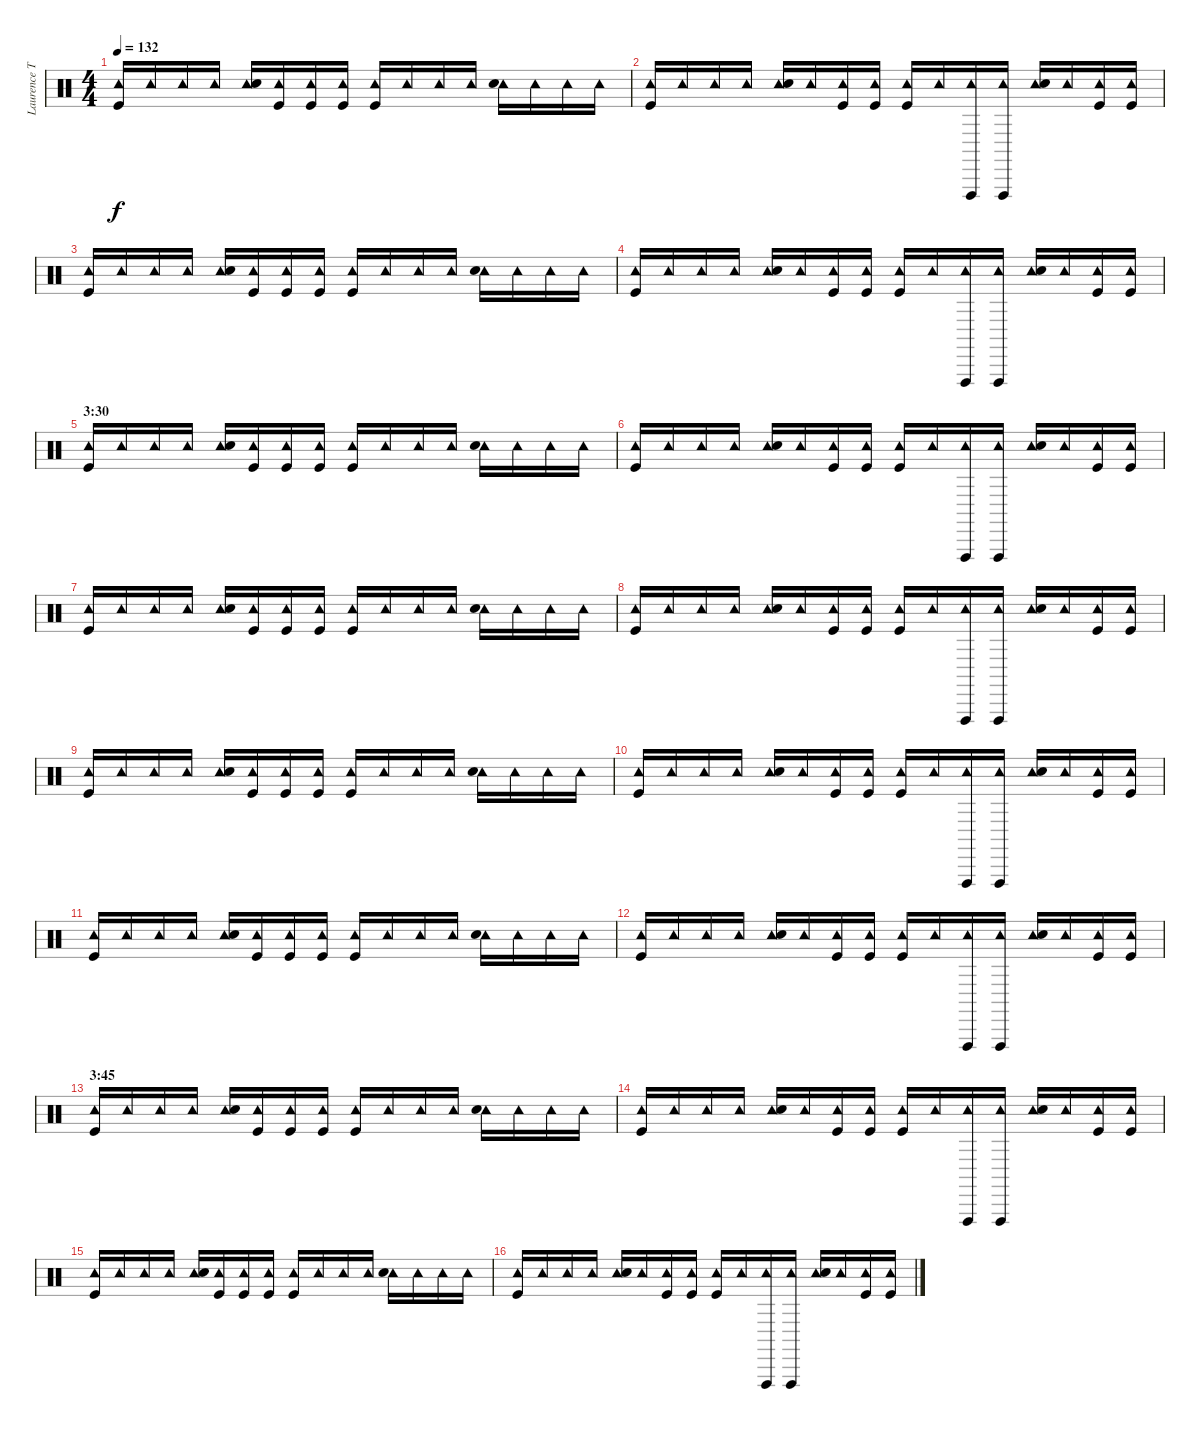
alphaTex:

\track ("Laurence Tolhurst (drums)" "Laurence T") {instrument percussion}
\staff {score}
\articulation defaults
\ts (4 4)
\tempo 132
\clef neutral
\ks c
("Tambourine (hit)" "Kick (hit)").16{dy f} "Tambourine (hit)".16 "Tambourine (hit)".16 "Tambourine (hit)".16 ("Tambourine (hit)" "Snare (hit) 2").16 ("Tambourine (hit)" "Kick (hit)").16 ("Tambourine (hit)" "Kick (hit)").16 ("Tambourine (hit)" "Kick (hit)").16 ("Tambourine (hit)" "Kick (hit)").16 "Tambourine (hit)".16 "Tambourine (hit)".16 "Tambourine (hit)".16 ("Tambourine (hit)" "Snare (hit) 2").16 "Tambourine (hit)".16 "Tambourine (hit)".16 "Tambourine (hit)".16 |
("Tambourine (hit)" "Kick (hit)").16 "Tambourine (hit)".16 "Tambourine (hit)".16 "Tambourine (hit)".16 ("Tambourine (hit)" "Snare (hit) 2").16 "Tambourine (hit)".16 ("Tambourine (hit)" "Kick (hit)").16 ("Tambourine (hit)" "Kick (hit)").16 ("Tambourine (hit)" "Kick (hit)").16 "Tambourine (hit)".16 ("Tambourine (hit)" "Vibraslap (hit)").16 ("Tambourine (hit)" "Vibraslap (hit)").16 ("Tambourine (hit)" "Snare (hit) 2").16 "Tambourine (hit)".16 ("Tambourine (hit)" "Kick (hit)").16 ("Tambourine (hit)" "Kick (hit)").16 |
("Tambourine (hit)" "Kick (hit)").16 "Tambourine (hit)".16 "Tambourine (hit)".16 "Tambourine (hit)".16 ("Tambourine (hit)" "Snare (hit) 2").16 ("Tambourine (hit)" "Kick (hit)").16 ("Tambourine (hit)" "Kick (hit)").16 ("Tambourine (hit)" "Kick (hit)").16 ("Tambourine (hit)" "Kick (hit)").16 "Tambourine (hit)".16 "Tambourine (hit)".16 "Tambourine (hit)".16 ("Tambourine (hit)" "Snare (hit) 2").16 "Tambourine (hit)".16 "Tambourine (hit)".16 "Tambourine (hit)".16 |
("Tambourine (hit)" "Kick (hit)").16 "Tambourine (hit)".16 "Tambourine (hit)".16 "Tambourine (hit)".16 ("Tambourine (hit)" "Snare (hit) 2").16 "Tambourine (hit)".16 ("Tambourine (hit)" "Kick (hit)").16 ("Tambourine (hit)" "Kick (hit)").16 ("Tambourine (hit)" "Kick (hit)").16 "Tambourine (hit)".16 ("Tambourine (hit)" "Vibraslap (hit)").16 ("Tambourine (hit)" "Vibraslap (hit)").16 ("Tambourine (hit)" "Snare (hit) 2").16 "Tambourine (hit)".16 ("Tambourine (hit)" "Kick (hit)").16 ("Tambourine (hit)" "Kick (hit)").16 |
\section ("" "3:30")
("Tambourine (hit)" "Kick (hit)").16 "Tambourine (hit)".16 "Tambourine (hit)".16 "Tambourine (hit)".16 ("Tambourine (hit)" "Snare (hit) 2").16 ("Tambourine (hit)" "Kick (hit)").16 ("Tambourine (hit)" "Kick (hit)").16 ("Tambourine (hit)" "Kick (hit)").16 ("Tambourine (hit)" "Kick (hit)").16 "Tambourine (hit)".16 "Tambourine (hit)".16 "Tambourine (hit)".16 ("Tambourine (hit)" "Snare (hit) 2").16 "Tambourine (hit)".16 "Tambourine (hit)".16 "Tambourine (hit)".16 |
("Tambourine (hit)" "Kick (hit)").16 "Tambourine (hit)".16 "Tambourine (hit)".16 "Tambourine (hit)".16 ("Tambourine (hit)" "Snare (hit) 2").16 "Tambourine (hit)".16 ("Tambourine (hit)" "Kick (hit)").16 ("Tambourine (hit)" "Kick (hit)").16 ("Tambourine (hit)" "Kick (hit)").16 "Tambourine (hit)".16 ("Tambourine (hit)" "Vibraslap (hit)").16 ("Tambourine (hit)" "Vibraslap (hit)").16 ("Tambourine (hit)" "Snare (hit) 2").16 "Tambourine (hit)".16 ("Tambourine (hit)" "Kick (hit)").16 ("Tambourine (hit)" "Kick (hit)").16 |
("Tambourine (hit)" "Kick (hit)").16 "Tambourine (hit)".16 "Tambourine (hit)".16 "Tambourine (hit)".16 ("Tambourine (hit)" "Snare (hit) 2").16 ("Tambourine (hit)" "Kick (hit)").16 ("Tambourine (hit)" "Kick (hit)").16 ("Tambourine (hit)" "Kick (hit)").16 ("Tambourine (hit)" "Kick (hit)").16 "Tambourine (hit)".16 "Tambourine (hit)".16 "Tambourine (hit)".16 ("Tambourine (hit)" "Snare (hit) 2").16 "Tambourine (hit)".16 "Tambourine (hit)".16 "Tambourine (hit)".16 |
("Tambourine (hit)" "Kick (hit)").16 "Tambourine (hit)".16 "Tambourine (hit)".16 "Tambourine (hit)".16 ("Tambourine (hit)" "Snare (hit) 2").16 "Tambourine (hit)".16 ("Tambourine (hit)" "Kick (hit)").16 ("Tambourine (hit)" "Kick (hit)").16 ("Tambourine (hit)" "Kick (hit)").16 "Tambourine (hit)".16 ("Tambourine (hit)" "Vibraslap (hit)").16 ("Tambourine (hit)" "Vibraslap (hit)").16 ("Tambourine (hit)" "Snare (hit) 2").16 "Tambourine (hit)".16 ("Tambourine (hit)" "Kick (hit)").16 ("Tambourine (hit)" "Kick (hit)").16 |
("Tambourine (hit)" "Kick (hit)").16 "Tambourine (hit)".16 "Tambourine (hit)".16 "Tambourine (hit)".16 ("Tambourine (hit)" "Snare (hit) 2").16 ("Tambourine (hit)" "Kick (hit)").16 ("Tambourine (hit)" "Kick (hit)").16 ("Tambourine (hit)" "Kick (hit)").16 ("Tambourine (hit)" "Kick (hit)").16 "Tambourine (hit)".16 "Tambourine (hit)".16 "Tambourine (hit)".16 ("Tambourine (hit)" "Snare (hit) 2").16 "Tambourine (hit)".16 "Tambourine (hit)".16 "Tambourine (hit)".16 |
("Tambourine (hit)" "Kick (hit)").16 "Tambourine (hit)".16 "Tambourine (hit)".16 "Tambourine (hit)".16 ("Tambourine (hit)" "Snare (hit) 2").16 "Tambourine (hit)".16 ("Tambourine (hit)" "Kick (hit)").16 ("Tambourine (hit)" "Kick (hit)").16 ("Tambourine (hit)" "Kick (hit)").16 "Tambourine (hit)".16 ("Tambourine (hit)" "Vibraslap (hit)").16 ("Tambourine (hit)" "Vibraslap (hit)").16 ("Tambourine (hit)" "Snare (hit) 2").16 "Tambourine (hit)".16 ("Tambourine (hit)" "Kick (hit)").16 ("Tambourine (hit)" "Kick (hit)").16 |
("Tambourine (hit)" "Kick (hit)").16 "Tambourine (hit)".16 "Tambourine (hit)".16 "Tambourine (hit)".16 ("Tambourine (hit)" "Snare (hit) 2").16 ("Tambourine (hit)" "Kick (hit)").16 ("Tambourine (hit)" "Kick (hit)").16 ("Tambourine (hit)" "Kick (hit)").16 ("Tambourine (hit)" "Kick (hit)").16 "Tambourine (hit)".16 "Tambourine (hit)".16 "Tambourine (hit)".16 ("Tambourine (hit)" "Snare (hit) 2").16 "Tambourine (hit)".16 "Tambourine (hit)".16 "Tambourine (hit)".16 |
("Tambourine (hit)" "Kick (hit)").16 "Tambourine (hit)".16 "Tambourine (hit)".16 "Tambourine (hit)".16 ("Tambourine (hit)" "Snare (hit) 2").16 "Tambourine (hit)".16 ("Tambourine (hit)" "Kick (hit)").16 ("Tambourine (hit)" "Kick (hit)").16 ("Tambourine (hit)" "Kick (hit)").16 "Tambourine (hit)".16 ("Tambourine (hit)" "Vibraslap (hit)").16 ("Tambourine (hit)" "Vibraslap (hit)").16 ("Tambourine (hit)" "Snare (hit) 2").16 "Tambourine (hit)".16 ("Tambourine (hit)" "Kick (hit)").16 ("Tambourine (hit)" "Kick (hit)").16 |
\section ("" "3:45")
("Tambourine (hit)" "Kick (hit)").16 "Tambourine (hit)".16 "Tambourine (hit)".16 "Tambourine (hit)".16 ("Tambourine (hit)" "Snare (hit) 2").16 ("Tambourine (hit)" "Kick (hit)").16 ("Tambourine (hit)" "Kick (hit)").16 ("Tambourine (hit)" "Kick (hit)").16 ("Tambourine (hit)" "Kick (hit)").16 "Tambourine (hit)".16 "Tambourine (hit)".16 "Tambourine (hit)".16 ("Tambourine (hit)" "Snare (hit) 2").16 "Tambourine (hit)".16 "Tambourine (hit)".16 "Tambourine (hit)".16 |
("Tambourine (hit)" "Kick (hit)").16 "Tambourine (hit)".16 "Tambourine (hit)".16 "Tambourine (hit)".16 ("Tambourine (hit)" "Snare (hit) 2").16 "Tambourine (hit)".16 ("Tambourine (hit)" "Kick (hit)").16 ("Tambourine (hit)" "Kick (hit)").16 ("Tambourine (hit)" "Kick (hit)").16 "Tambourine (hit)".16 ("Tambourine (hit)" "Vibraslap (hit)").16 ("Tambourine (hit)" "Vibraslap (hit)").16 ("Tambourine (hit)" "Snare (hit) 2").16 "Tambourine (hit)".16 ("Tambourine (hit)" "Kick (hit)").16 ("Tambourine (hit)" "Kick (hit)").16 |
("Tambourine (hit)" "Kick (hit)").16 "Tambourine (hit)".16 "Tambourine (hit)".16 "Tambourine (hit)".16 ("Tambourine (hit)" "Snare (hit) 2").16 ("Tambourine (hit)" "Kick (hit)").16 ("Tambourine (hit)" "Kick (hit)").16 ("Tambourine (hit)" "Kick (hit)").16 ("Tambourine (hit)" "Kick (hit)").16 "Tambourine (hit)".16 "Tambourine (hit)".16 "Tambourine (hit)".16 ("Tambourine (hit)" "Snare (hit) 2").16 "Tambourine (hit)".16 "Tambourine (hit)".16 "Tambourine (hit)".16 |
("Tambourine (hit)" "Kick (hit)").16 "Tambourine (hit)".16 "Tambourine (hit)".16 "Tambourine (hit)".16 ("Tambourine (hit)" "Snare (hit) 2").16 "Tambourine (hit)".16 ("Tambourine (hit)" "Kick (hit)").16 ("Tambourine (hit)" "Kick (hit)").16 ("Tambourine (hit)" "Kick (hit)").16 "Tambourine (hit)".16 ("Tambourine (hit)" "Vibraslap (hit)").16 ("Tambourine (hit)" "Vibraslap (hit)").16 ("Tambourine (hit)" "Snare (hit) 2").16 "Tambourine (hit)".16 ("Tambourine (hit)" "Kick (hit)").16 ("Tambourine (hit)" "Kick (hit)").16
